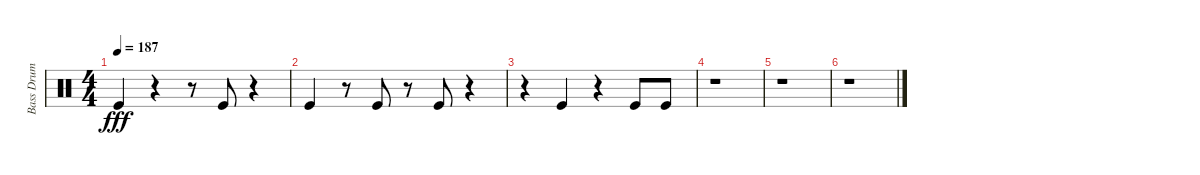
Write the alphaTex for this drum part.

\track ("Bass Drum" "Bass Drum") {instrument percussion}
\staff {score}
\articulation defaults
\ts (4 4)
\tempo 187
\clef neutral
\ks c "Kick (hit)".4{dy fff}
r.4 r.8 "Kick (hit)".8 r.4 |
"Kick (hit)".4 r.8 "Kick (hit)".8 r.8 "Kick (hit)".8 r.4 |
r.4 "Kick (hit)".4 r.4 "Kick (hit)".8 "Kick (hit)".8 |
r.1 |
r.1 |
r.1
